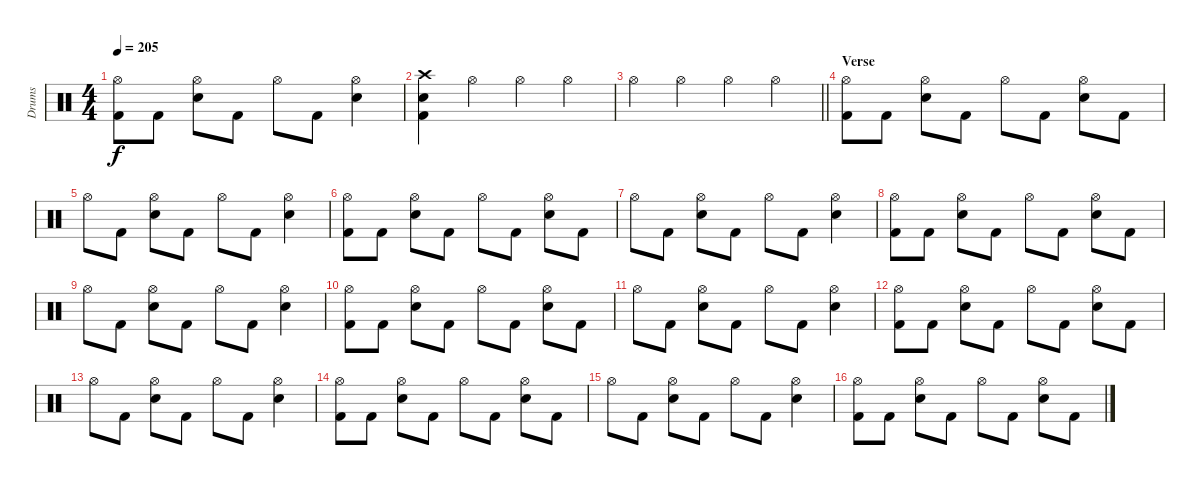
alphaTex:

\track ("Drums" "Drums") {instrument percussion}
\staff {score}
\articulation defaults
\ts (4 4)
\tempo 205
\clef neutral
\ks c
("Hi-Hat (open)" "Kick (hit) 2").8{dy f} "Kick (hit) 2".8 ("Hi-Hat (open)" "Snare (hit) 2").8 "Kick (hit) 2".8 "Hi-Hat (open)".8 "Kick (hit) 2".8 ("Hi-Hat (open)" "Snare (hit) 2").4 |
("Crash high (hit)" "Snare (hit) 2" "Kick (hit) 2").4 "Hi-Hat (open)".4 "Hi-Hat (open)".4 "Hi-Hat (open)".4 |
\barLineRight lightlight "Hi-Hat (open)".4 "Hi-Hat (open)".4 "Hi-Hat (open)".4 "Hi-Hat (open)".4
|
\section ("" "Verse")
("Hi-Hat (open)" "Kick (hit) 2").8 "Kick (hit) 2".8 ("Hi-Hat (open)" "Snare (hit) 2").8 "Kick (hit) 2".8 "Hi-Hat (open)".8 "Kick (hit) 2".8 ("Hi-Hat (open)" "Snare (hit) 2").8 "Kick (hit) 2".8 |
"Hi-Hat (open)".8 "Kick (hit) 2".8 ("Hi-Hat (open)" "Snare (hit) 2").8 "Kick (hit) 2".8 "Hi-Hat (open)".8 "Kick (hit) 2".8 ("Hi-Hat (open)" "Snare (hit) 2").4 |
("Hi-Hat (open)" "Kick (hit) 2").8 "Kick (hit) 2".8 ("Hi-Hat (open)" "Snare (hit) 2").8 "Kick (hit) 2".8 "Hi-Hat (open)".8 "Kick (hit) 2".8 ("Hi-Hat (open)" "Snare (hit) 2").8 "Kick (hit) 2".8 |
"Hi-Hat (open)".8 "Kick (hit) 2".8 ("Hi-Hat (open)" "Snare (hit) 2").8 "Kick (hit) 2".8 "Hi-Hat (open)".8 "Kick (hit) 2".8 ("Hi-Hat (open)" "Snare (hit) 2").4 |
("Hi-Hat (open)" "Kick (hit) 2").8 "Kick (hit) 2".8 ("Hi-Hat (open)" "Snare (hit) 2").8 "Kick (hit) 2".8 "Hi-Hat (open)".8 "Kick (hit) 2".8 ("Hi-Hat (open)" "Snare (hit) 2").8 "Kick (hit) 2".8 |
"Hi-Hat (open)".8 "Kick (hit) 2".8 ("Hi-Hat (open)" "Snare (hit) 2").8 "Kick (hit) 2".8 "Hi-Hat (open)".8 "Kick (hit) 2".8 ("Hi-Hat (open)" "Snare (hit) 2").4 |
("Hi-Hat (open)" "Kick (hit) 2").8 "Kick (hit) 2".8 ("Hi-Hat (open)" "Snare (hit) 2").8 "Kick (hit) 2".8 "Hi-Hat (open)".8 "Kick (hit) 2".8 ("Hi-Hat (open)" "Snare (hit) 2").8 "Kick (hit) 2".8 |
"Hi-Hat (open)".8 "Kick (hit) 2".8 ("Hi-Hat (open)" "Snare (hit) 2").8 "Kick (hit) 2".8 "Hi-Hat (open)".8 "Kick (hit) 2".8 ("Hi-Hat (open)" "Snare (hit) 2").4 |
("Hi-Hat (open)" "Kick (hit) 2").8 "Kick (hit) 2".8 ("Hi-Hat (open)" "Snare (hit) 2").8 "Kick (hit) 2".8 "Hi-Hat (open)".8 "Kick (hit) 2".8 ("Hi-Hat (open)" "Snare (hit) 2").8 "Kick (hit) 2".8 |
"Hi-Hat (open)".8 "Kick (hit) 2".8 ("Hi-Hat (open)" "Snare (hit) 2").8 "Kick (hit) 2".8 "Hi-Hat (open)".8 "Kick (hit) 2".8 ("Hi-Hat (open)" "Snare (hit) 2").4 |
("Hi-Hat (open)" "Kick (hit) 2").8 "Kick (hit) 2".8 ("Hi-Hat (open)" "Snare (hit) 2").8 "Kick (hit) 2".8 "Hi-Hat (open)".8 "Kick (hit) 2".8 ("Hi-Hat (open)" "Snare (hit) 2").8 "Kick (hit) 2".8 |
"Hi-Hat (open)".8 "Kick (hit) 2".8 ("Hi-Hat (open)" "Snare (hit) 2").8 "Kick (hit) 2".8 "Hi-Hat (open)".8 "Kick (hit) 2".8 ("Hi-Hat (open)" "Snare (hit) 2").4 |
("Hi-Hat (open)" "Kick (hit) 2").8 "Kick (hit) 2".8 ("Hi-Hat (open)" "Snare (hit) 2").8 "Kick (hit) 2".8 "Hi-Hat (open)".8 "Kick (hit) 2".8 ("Hi-Hat (open)" "Snare (hit) 2").8 "Kick (hit) 2".8
